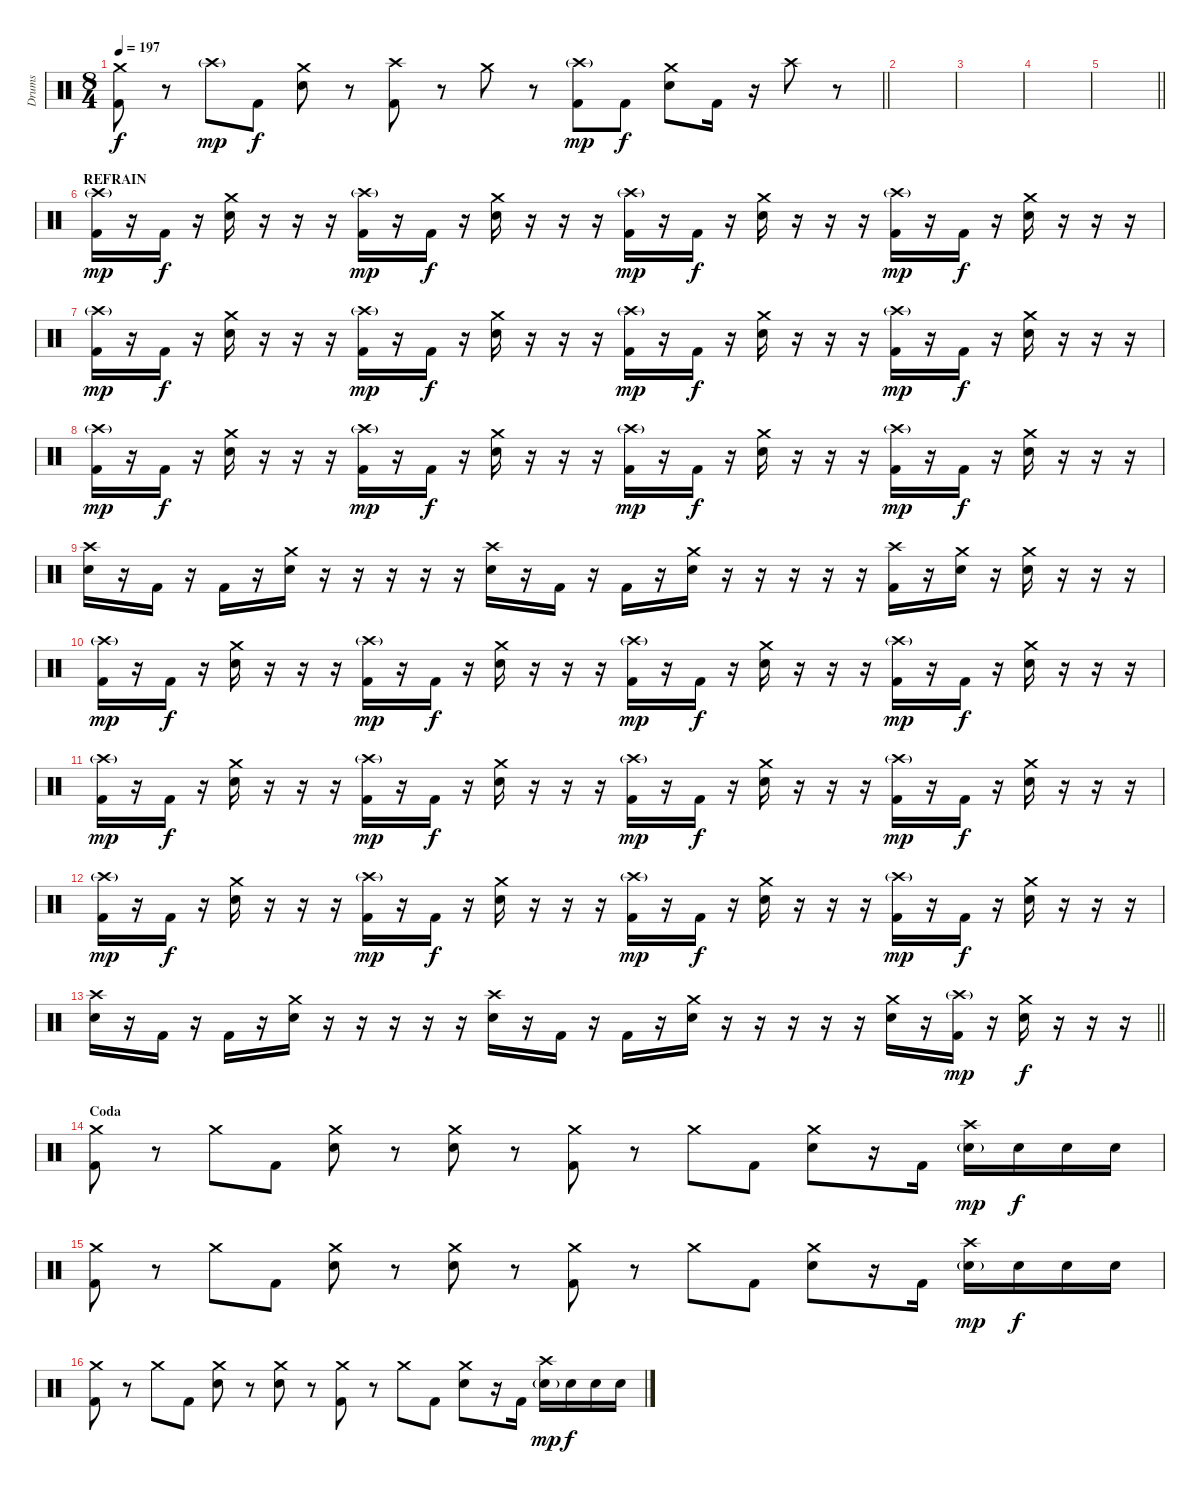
\track ("Drums" "Drums") {instrument percussion}
\staff {score}
\articulation defaults
\ts (8 4)
\tempo 197
\clef neutral
\barLineRight lightlight
\ks c
("Crash medium (hit)" "Kick (hit) 2").8{dy f} r.8 "Crash high (hit)"{g}.8{dy mp} "Kick (hit) 2".8{dy f} ("Crash medium (hit)" "Electric Snare (hit)").8 r.8 ("Crash high (hit)" "Kick (hit) 2").8 r.8 "Crash medium (hit)".8 r.8 ("Crash high (hit)"{g} "Kick (hit) 2").8{dy mp} "Kick (hit) 2".8{dy f} ("Crash medium (hit)" "Electric Snare (hit)").8 "Kick (hit) 2".16 r.16 "Crash high (hit)".8 r.8 |
|
|
|
\barLineRight lightlight
|
\section ("" "REFRAIN")
("Crash high (hit)"{g} "Kick (hit) 2").16{dy mp} r.16 "Kick (hit) 2".16{dy f} r.16 ("Crash medium (hit)" "Electric Snare (hit)").16 r.16 r.16 r.16 ("Crash high (hit)"{g} "Kick (hit) 2").16{dy mp} r.16 "Kick (hit) 2".16{dy f} r.16 ("Crash medium (hit)" "Electric Snare (hit)").16 r.16 r.16 r.16 ("Crash high (hit)"{g} "Kick (hit) 2").16{dy mp} r.16 "Kick (hit) 2".16{dy f} r.16 ("Crash medium (hit)" "Electric Snare (hit)").16 r.16 r.16 r.16 ("Crash high (hit)"{g} "Kick (hit) 2").16{dy mp} r.16 "Kick (hit) 2".16{dy f} r.16 ("Crash medium (hit)" "Electric Snare (hit)").16 r.16 r.16 r.16 |
("Crash high (hit)"{g} "Kick (hit) 2").16{dy mp} r.16 "Kick (hit) 2".16{dy f} r.16 ("Crash medium (hit)" "Electric Snare (hit)").16 r.16 r.16 r.16 ("Crash high (hit)"{g} "Kick (hit) 2").16{dy mp} r.16 "Kick (hit) 2".16{dy f} r.16 ("Crash medium (hit)" "Electric Snare (hit)").16 r.16 r.16 r.16 ("Crash high (hit)"{g} "Kick (hit) 2").16{dy mp} r.16 "Kick (hit) 2".16{dy f} r.16 ("Crash medium (hit)" "Electric Snare (hit)").16 r.16 r.16 r.16 ("Crash high (hit)"{g} "Kick (hit) 2").16{dy mp} r.16 "Kick (hit) 2".16{dy f} r.16 ("Crash medium (hit)" "Electric Snare (hit)").16 r.16 r.16 r.16 |
("Crash high (hit)"{g} "Kick (hit) 2").16{dy mp} r.16 "Kick (hit) 2".16{dy f} r.16 ("Crash medium (hit)" "Electric Snare (hit)").16 r.16 r.16 r.16 ("Crash high (hit)"{g} "Kick (hit) 2").16{dy mp} r.16 "Kick (hit) 2".16{dy f} r.16 ("Crash medium (hit)" "Electric Snare (hit)").16 r.16 r.16 r.16 ("Crash high (hit)"{g} "Kick (hit) 2").16{dy mp} r.16 "Kick (hit) 2".16{dy f} r.16 ("Crash medium (hit)" "Electric Snare (hit)").16 r.16 r.16 r.16 ("Crash high (hit)"{g} "Kick (hit) 2").16{dy mp} r.16 "Kick (hit) 2".16{dy f} r.16 ("Crash medium (hit)" "Electric Snare (hit)").16 r.16 r.16 r.16 |
("Crash high (hit)" "Electric Snare (hit)").16 r.16 "Kick (hit) 2".16 r.16 "Kick (hit) 2".16 r.16 ("Crash medium (hit)" "Electric Snare (hit)").16 r.16 r.16 r.16 r.16 r.16 ("Crash high (hit)" "Electric Snare (hit)").16 r.16 "Kick (hit) 2".16 r.16 "Kick (hit) 2".16 r.16 ("Crash medium (hit)" "Electric Snare (hit)").16 r.16 r.16 r.16 r.16 r.16 ("Crash high (hit)" "Kick (hit) 2").16 r.16 ("Crash medium (hit)" "Electric Snare (hit)").16 r.16 ("Crash medium (hit)" "Electric Snare (hit)").16 r.16 r.16 r.16 |
("Crash high (hit)"{g} "Kick (hit) 2").16{dy mp} r.16 "Kick (hit) 2".16{dy f} r.16 ("Crash medium (hit)" "Electric Snare (hit)").16 r.16 r.16 r.16 ("Crash high (hit)"{g} "Kick (hit) 2").16{dy mp} r.16 "Kick (hit) 2".16{dy f} r.16 ("Crash medium (hit)" "Electric Snare (hit)").16 r.16 r.16 r.16 ("Crash high (hit)"{g} "Kick (hit) 2").16{dy mp} r.16 "Kick (hit) 2".16{dy f} r.16 ("Crash medium (hit)" "Electric Snare (hit)").16 r.16 r.16 r.16 ("Crash high (hit)"{g} "Kick (hit) 2").16{dy mp} r.16 "Kick (hit) 2".16{dy f} r.16 ("Crash medium (hit)" "Electric Snare (hit)").16 r.16 r.16 r.16 |
("Crash high (hit)"{g} "Kick (hit) 2").16{dy mp} r.16 "Kick (hit) 2".16{dy f} r.16 ("Crash medium (hit)" "Electric Snare (hit)").16 r.16 r.16 r.16 ("Crash high (hit)"{g} "Kick (hit) 2").16{dy mp} r.16 "Kick (hit) 2".16{dy f} r.16 ("Crash medium (hit)" "Electric Snare (hit)").16 r.16 r.16 r.16 ("Crash high (hit)"{g} "Kick (hit) 2").16{dy mp} r.16 "Kick (hit) 2".16{dy f} r.16 ("Crash medium (hit)" "Electric Snare (hit)").16 r.16 r.16 r.16 ("Crash high (hit)"{g} "Kick (hit) 2").16{dy mp} r.16 "Kick (hit) 2".16{dy f} r.16 ("Crash medium (hit)" "Electric Snare (hit)").16 r.16 r.16 r.16 |
("Crash high (hit)"{g} "Kick (hit) 2").16{dy mp} r.16 "Kick (hit) 2".16{dy f} r.16 ("Crash medium (hit)" "Electric Snare (hit)").16 r.16 r.16 r.16 ("Crash high (hit)"{g} "Kick (hit) 2").16{dy mp} r.16 "Kick (hit) 2".16{dy f} r.16 ("Crash medium (hit)" "Electric Snare (hit)").16 r.16 r.16 r.16 ("Crash high (hit)"{g} "Kick (hit) 2").16{dy mp} r.16 "Kick (hit) 2".16{dy f} r.16 ("Crash medium (hit)" "Electric Snare (hit)").16 r.16 r.16 r.16 ("Crash high (hit)"{g} "Kick (hit) 2").16{dy mp} r.16 "Kick (hit) 2".16{dy f} r.16 ("Crash medium (hit)" "Electric Snare (hit)").16 r.16 r.16 r.16 |
\barLineRight lightlight
("Crash high (hit)" "Electric Snare (hit)").16 r.16 "Kick (hit) 2".16 r.16 "Kick (hit) 2".16 r.16 ("Crash medium (hit)" "Electric Snare (hit)").16 r.16 r.16 r.16 r.16 r.16 ("Crash high (hit)" "Electric Snare (hit)").16 r.16 "Kick (hit) 2".16 r.16 "Kick (hit) 2".16 r.16 ("Crash medium (hit)" "Electric Snare (hit)").16 r.16 r.16 r.16 r.16 r.16 ("Crash medium (hit)" "Electric Snare (hit)").16 r.16 ("Crash high (hit)"{g} "Kick (hit) 2").16{dy mp} r.16 ("Crash medium (hit)" "Electric Snare (hit)").16{dy f} r.16 r.16 r.16 |
\section ("" "Coda")
("Crash medium (hit)" "Kick (hit) 2").8 r.8 "Crash medium (hit)".8 "Kick (hit) 2".8 ("Crash medium (hit)" "Electric Snare (hit)").8 r.8 ("Crash medium (hit)" "Electric Snare (hit)").8 r.8 ("Crash medium (hit)" "Kick (hit) 2").8 r.8 "Crash medium (hit)".8 "Kick (hit) 2".8 ("Crash medium (hit)" "Electric Snare (hit)").8 r.16 "Kick (hit) 2".16 ("Crash high (hit)" "Electric Snare (hit)"{g}).16{dy mp} "Electric Snare (hit)".16{dy f} "Electric Snare (hit)".16 "Electric Snare (hit)".16 |
("Crash medium (hit)" "Kick (hit) 2").8 r.8 "Crash medium (hit)".8 "Kick (hit) 2".8 ("Crash medium (hit)" "Electric Snare (hit)").8 r.8 ("Crash medium (hit)" "Electric Snare (hit)").8 r.8 ("Crash medium (hit)" "Kick (hit) 2").8 r.8 "Crash medium (hit)".8 "Kick (hit) 2".8 ("Crash medium (hit)" "Electric Snare (hit)").8 r.16 "Kick (hit) 2".16 ("Crash high (hit)" "Electric Snare (hit)"{g}).16{dy mp} "Electric Snare (hit)".16{dy f} "Electric Snare (hit)".16 "Electric Snare (hit)".16 |
("Crash medium (hit)" "Kick (hit) 2").8 r.8 "Crash medium (hit)".8 "Kick (hit) 2".8 ("Crash medium (hit)" "Electric Snare (hit)").8 r.8 ("Crash medium (hit)" "Electric Snare (hit)").8 r.8 ("Crash medium (hit)" "Kick (hit) 2").8 r.8 "Crash medium (hit)".8 "Kick (hit) 2".8 ("Crash medium (hit)" "Electric Snare (hit)").8 r.16 "Kick (hit) 2".16 ("Crash high (hit)" "Electric Snare (hit)"{g}).16{dy mp} "Electric Snare (hit)".16{dy f} "Electric Snare (hit)".16 "Electric Snare (hit)".16
